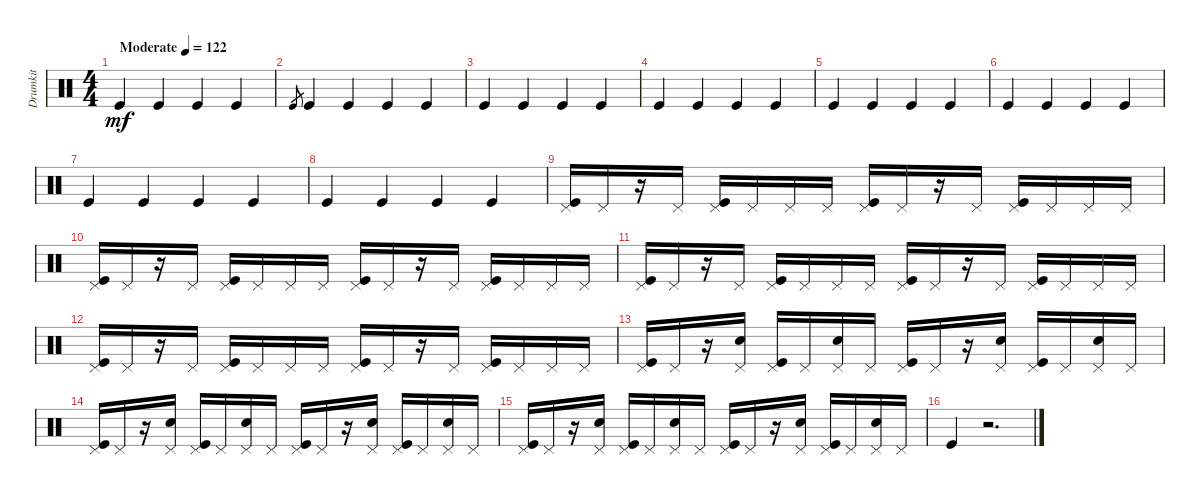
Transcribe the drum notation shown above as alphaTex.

\track ("Drumkit" "Drumkit") {instrument percussion}
\staff {score}
\articulation defaults
\ts (4 4)
\tempo (122 "Moderate")
\clef neutral
\ks c "Kick (hit)".4{dy mf} "Kick (hit)".4 "Kick (hit)".4 "Kick (hit)".4
|
"Kick (hit)".8{gr} "Kick (hit)".4 "Kick (hit)".4 "Kick (hit)".4 "Kick (hit)".4 |
"Kick (hit)".4 "Kick (hit)".4 "Kick (hit)".4 "Kick (hit)".4 |
"Kick (hit)".4 "Kick (hit)".4 "Kick (hit)".4 "Kick (hit)".4 |
"Kick (hit)".4 "Kick (hit)".4 "Kick (hit)".4 "Kick (hit)".4 |
"Kick (hit)".4 "Kick (hit)".4 "Kick (hit)".4 "Kick (hit)".4 |
"Kick (hit)".4 "Kick (hit)".4 "Kick (hit)".4 "Kick (hit)".4 |
"Kick (hit)".4 "Kick (hit)".4 "Kick (hit)".4 "Kick (hit)".4 |
("Kick (hit)" "Pedal Hi-Hat (hit)").16 "Pedal Hi-Hat (hit)".16 r.16 "Pedal Hi-Hat (hit)".16 ("Kick (hit)" "Pedal Hi-Hat (hit)").16 "Pedal Hi-Hat (hit)".16 "Pedal Hi-Hat (hit)".16 "Pedal Hi-Hat (hit)".16 ("Kick (hit)" "Pedal Hi-Hat (hit)").16 "Pedal Hi-Hat (hit)".16 r.16 "Pedal Hi-Hat (hit)".16 ("Kick (hit)" "Pedal Hi-Hat (hit)").16 "Pedal Hi-Hat (hit)".16 "Pedal Hi-Hat (hit)".16 "Pedal Hi-Hat (hit)".16 |
("Kick (hit)" "Pedal Hi-Hat (hit)").16 "Pedal Hi-Hat (hit)".16 r.16 "Pedal Hi-Hat (hit)".16 ("Kick (hit)" "Pedal Hi-Hat (hit)").16 "Pedal Hi-Hat (hit)".16 "Pedal Hi-Hat (hit)".16 "Pedal Hi-Hat (hit)".16 ("Kick (hit)" "Pedal Hi-Hat (hit)").16 "Pedal Hi-Hat (hit)".16 r.16 "Pedal Hi-Hat (hit)".16 ("Kick (hit)" "Pedal Hi-Hat (hit)").16 "Pedal Hi-Hat (hit)".16 "Pedal Hi-Hat (hit)".16 "Pedal Hi-Hat (hit)".16 |
("Kick (hit)" "Pedal Hi-Hat (hit)").16 "Pedal Hi-Hat (hit)".16 r.16 "Pedal Hi-Hat (hit)".16 ("Kick (hit)" "Pedal Hi-Hat (hit)").16 "Pedal Hi-Hat (hit)".16 "Pedal Hi-Hat (hit)".16 "Pedal Hi-Hat (hit)".16 ("Kick (hit)" "Pedal Hi-Hat (hit)").16 "Pedal Hi-Hat (hit)".16 r.16 "Pedal Hi-Hat (hit)".16 ("Kick (hit)" "Pedal Hi-Hat (hit)").16 "Pedal Hi-Hat (hit)".16 "Pedal Hi-Hat (hit)".16 "Pedal Hi-Hat (hit)".16 |
("Kick (hit)" "Pedal Hi-Hat (hit)").16 "Pedal Hi-Hat (hit)".16 r.16 "Pedal Hi-Hat (hit)".16 ("Kick (hit)" "Pedal Hi-Hat (hit)").16 "Pedal Hi-Hat (hit)".16 "Pedal Hi-Hat (hit)".16 "Pedal Hi-Hat (hit)".16 ("Kick (hit)" "Pedal Hi-Hat (hit)").16 "Pedal Hi-Hat (hit)".16 r.16 "Pedal Hi-Hat (hit)".16 ("Kick (hit)" "Pedal Hi-Hat (hit)").16 "Pedal Hi-Hat (hit)".16 "Pedal Hi-Hat (hit)".16 "Pedal Hi-Hat (hit)".16 |
("Kick (hit)" "Pedal Hi-Hat (hit)").16 "Pedal Hi-Hat (hit)".16 r.16 ("Snare (hit) 2" "Pedal Hi-Hat (hit)").16 ("Kick (hit)" "Pedal Hi-Hat (hit)").16 "Pedal Hi-Hat (hit)".16 ("Snare (hit) 2" "Pedal Hi-Hat (hit)").16 "Pedal Hi-Hat (hit)".16 ("Kick (hit)" "Pedal Hi-Hat (hit)").16 "Pedal Hi-Hat (hit)".16 r.16 ("Snare (hit) 2" "Pedal Hi-Hat (hit)").16 ("Kick (hit)" "Pedal Hi-Hat (hit)").16 "Pedal Hi-Hat (hit)".16 ("Snare (hit) 2" "Pedal Hi-Hat (hit)").16 "Pedal Hi-Hat (hit)".16 |
("Kick (hit)" "Pedal Hi-Hat (hit)").16 "Pedal Hi-Hat (hit)".16 r.16 ("Snare (hit) 2" "Pedal Hi-Hat (hit)").16 ("Kick (hit)" "Pedal Hi-Hat (hit)").16 "Pedal Hi-Hat (hit)".16 ("Snare (hit) 2" "Pedal Hi-Hat (hit)").16 "Pedal Hi-Hat (hit)".16 ("Kick (hit)" "Pedal Hi-Hat (hit)").16 "Pedal Hi-Hat (hit)".16 r.16 ("Snare (hit) 2" "Pedal Hi-Hat (hit)").16 ("Kick (hit)" "Pedal Hi-Hat (hit)").16 "Pedal Hi-Hat (hit)".16 ("Snare (hit) 2" "Pedal Hi-Hat (hit)").16 "Pedal Hi-Hat (hit)".16 |
("Kick (hit)" "Pedal Hi-Hat (hit)").16 "Pedal Hi-Hat (hit)".16 r.16 ("Snare (hit) 2" "Pedal Hi-Hat (hit)").16 ("Kick (hit)" "Pedal Hi-Hat (hit)").16 "Pedal Hi-Hat (hit)".16 ("Snare (hit) 2" "Pedal Hi-Hat (hit)").16 "Pedal Hi-Hat (hit)".16 ("Kick (hit)" "Pedal Hi-Hat (hit)").16 "Pedal Hi-Hat (hit)".16 r.16 ("Snare (hit) 2" "Pedal Hi-Hat (hit)").16 ("Kick (hit)" "Pedal Hi-Hat (hit)").16 "Pedal Hi-Hat (hit)".16 ("Snare (hit) 2" "Pedal Hi-Hat (hit)").16 "Pedal Hi-Hat (hit)".16 |
"Kick (hit)".4 r.2{d}
